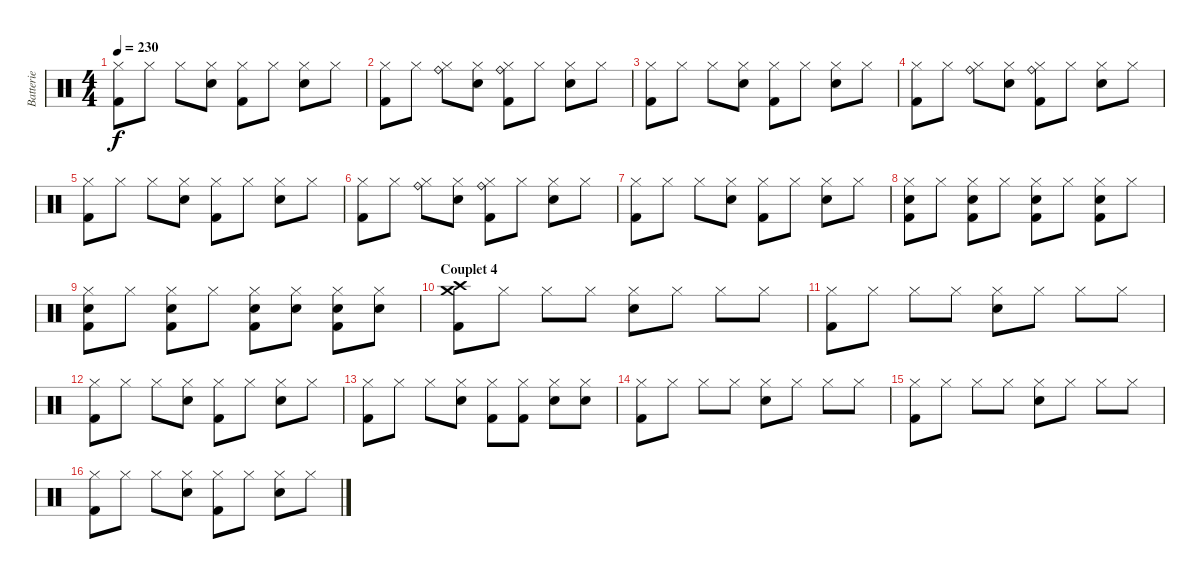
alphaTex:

\track ("Batterie" "Batterie") {instrument percussion}
\staff {score}
\articulation defaults
\ts (4 4)
\tempo 230
\clef neutral
\ks c
("Hi-Hat (closed)" "Kick (hit) 2").8{dy f} "Hi-Hat (closed)".8 "Hi-Hat (closed)".8 ("Hi-Hat (closed)" "Electric Snare (hit)").8 ("Hi-Hat (closed)" "Kick (hit) 2").8 "Hi-Hat (closed)".8 ("Hi-Hat (closed)" "Electric Snare (hit)").8 "Hi-Hat (closed)".8 |
("Hi-Hat (closed)" "Kick (hit) 2").8 "Hi-Hat (closed)".8 ("Hi-Hat (closed)" "Ride (bell)").8 ("Hi-Hat (closed)" "Electric Snare (hit)").8 ("Hi-Hat (closed)" "Ride (bell)" "Kick (hit) 2").8 "Hi-Hat (closed)".8 ("Hi-Hat (closed)" "Electric Snare (hit)").8 "Hi-Hat (closed)".8 |
("Hi-Hat (closed)" "Kick (hit) 2").8 "Hi-Hat (closed)".8 "Hi-Hat (closed)".8 ("Hi-Hat (closed)" "Electric Snare (hit)").8 ("Hi-Hat (closed)" "Kick (hit) 2").8 "Hi-Hat (closed)".8 ("Hi-Hat (closed)" "Electric Snare (hit)").8 "Hi-Hat (closed)".8 |
("Hi-Hat (closed)" "Kick (hit) 2").8 "Hi-Hat (closed)".8 ("Hi-Hat (closed)" "Ride (bell)").8 ("Hi-Hat (closed)" "Electric Snare (hit)").8 ("Hi-Hat (closed)" "Ride (bell)" "Kick (hit) 2").8 "Hi-Hat (closed)".8 ("Hi-Hat (closed)" "Electric Snare (hit)").8 "Hi-Hat (closed)".8 |
("Hi-Hat (closed)" "Kick (hit) 2").8 "Hi-Hat (closed)".8 "Hi-Hat (closed)".8 ("Hi-Hat (closed)" "Electric Snare (hit)").8 ("Hi-Hat (closed)" "Kick (hit) 2").8 "Hi-Hat (closed)".8 ("Hi-Hat (closed)" "Electric Snare (hit)").8 "Hi-Hat (closed)".8 |
("Hi-Hat (closed)" "Kick (hit) 2").8 "Hi-Hat (closed)".8 ("Hi-Hat (closed)" "Ride (bell)").8 ("Hi-Hat (closed)" "Electric Snare (hit)").8 ("Hi-Hat (closed)" "Ride (bell)" "Kick (hit) 2").8 "Hi-Hat (closed)".8 ("Hi-Hat (closed)" "Electric Snare (hit)").8 "Hi-Hat (closed)".8 |
("Hi-Hat (closed)" "Kick (hit) 2").8 "Hi-Hat (closed)".8 "Hi-Hat (closed)".8 ("Hi-Hat (closed)" "Electric Snare (hit)").8 ("Hi-Hat (closed)" "Kick (hit) 2").8 "Hi-Hat (closed)".8 ("Hi-Hat (closed)" "Electric Snare (hit)").8 "Hi-Hat (closed)".8 |
("Hi-Hat (closed)" "Electric Snare (hit)" "Kick (hit) 2").8 "Hi-Hat (closed)".8 ("Hi-Hat (closed)" "Electric Snare (hit)" "Kick (hit) 2").8 "Hi-Hat (closed)".8 ("Hi-Hat (closed)" "Electric Snare (hit)" "Kick (hit) 2").8 "Hi-Hat (closed)".8 ("Hi-Hat (closed)" "Electric Snare (hit)" "Kick (hit) 2").8 "Hi-Hat (closed)".8 |
("Hi-Hat (closed)" "Electric Snare (hit)" "Kick (hit) 2").8 "Hi-Hat (closed)".8 ("Hi-Hat (closed)" "Electric Snare (hit)" "Kick (hit) 2").8 "Hi-Hat (closed)".8 ("Hi-Hat (closed)" "Electric Snare (hit)" "Kick (hit) 2").8 ("Hi-Hat (closed)" "Electric Snare (hit)").8 ("Hi-Hat (closed)" "Electric Snare (hit)" "Kick (hit) 2").8 ("Hi-Hat (closed)" "Electric Snare (hit)").8 |
\section ("" "Couplet 4")
("Crash high (hit)" "Crash medium (hit)" "Kick (hit) 2").8 "Hi-Hat (closed)".8 "Hi-Hat (closed)".8 "Hi-Hat (closed)".8 ("Hi-Hat (closed)" "Electric Snare (hit)").8 "Hi-Hat (closed)".8 "Hi-Hat (closed)".8 "Hi-Hat (closed)".8 |
("Hi-Hat (closed)" "Kick (hit) 2").8 "Hi-Hat (closed)".8 "Hi-Hat (closed)".8 "Hi-Hat (closed)".8 ("Hi-Hat (closed)" "Electric Snare (hit)").8 "Hi-Hat (closed)".8 "Hi-Hat (closed)".8 "Hi-Hat (closed)".8 |
("Hi-Hat (closed)" "Kick (hit) 2").8 "Hi-Hat (closed)".8 "Hi-Hat (closed)".8 ("Hi-Hat (closed)" "Electric Snare (hit)").8 ("Hi-Hat (closed)" "Kick (hit) 2").8 "Hi-Hat (closed)".8 ("Hi-Hat (closed)" "Electric Snare (hit)").8 "Hi-Hat (closed)".8 |
("Hi-Hat (closed)" "Kick (hit) 2").8 "Hi-Hat (closed)".8 "Hi-Hat (closed)".8 ("Hi-Hat (closed)" "Electric Snare (hit)").8 ("Hi-Hat (closed)" "Kick (hit) 2").8 ("Hi-Hat (closed)" "Kick (hit) 2").8 ("Hi-Hat (closed)" "Electric Snare (hit)").8 ("Hi-Hat (closed)" "Electric Snare (hit)").8 |
("Hi-Hat (closed)" "Kick (hit) 2").8 "Hi-Hat (closed)".8 "Hi-Hat (closed)".8 "Hi-Hat (closed)".8 ("Hi-Hat (closed)" "Electric Snare (hit)").8 "Hi-Hat (closed)".8 "Hi-Hat (closed)".8 "Hi-Hat (closed)".8 |
("Hi-Hat (closed)" "Kick (hit) 2").8 "Hi-Hat (closed)".8 "Hi-Hat (closed)".8 "Hi-Hat (closed)".8 ("Hi-Hat (closed)" "Electric Snare (hit)").8 "Hi-Hat (closed)".8 "Hi-Hat (closed)".8 "Hi-Hat (closed)".8 |
("Hi-Hat (closed)" "Kick (hit) 2").8 "Hi-Hat (closed)".8 "Hi-Hat (closed)".8 ("Hi-Hat (closed)" "Electric Snare (hit)").8 ("Hi-Hat (closed)" "Kick (hit) 2").8 "Hi-Hat (closed)".8 ("Hi-Hat (closed)" "Electric Snare (hit)").8 "Hi-Hat (closed)".8
